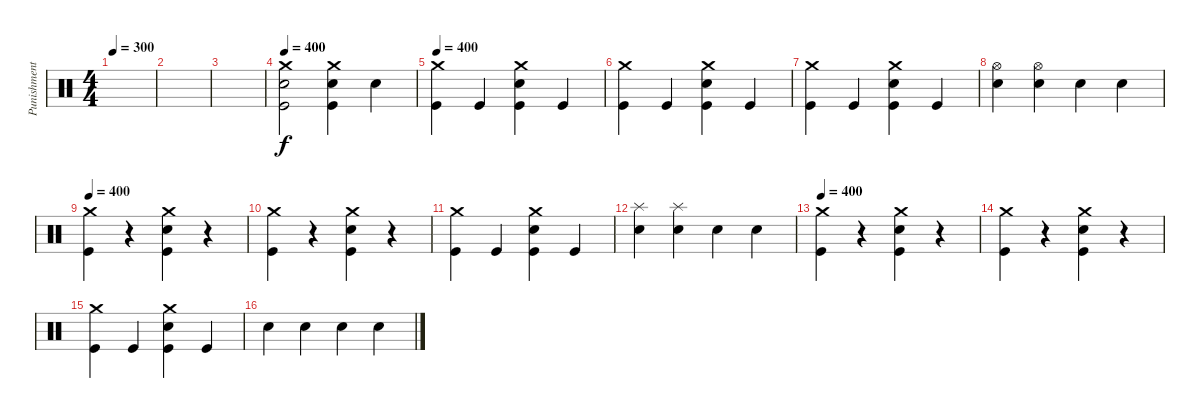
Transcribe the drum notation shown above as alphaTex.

\track ("Punishment" "Punishment") {instrument percussion}
\staff {score}
\articulation defaults
\ts (4 4)
\tempo 300
\clef neutral
\ks c
|
|
|
\tempo 400
("Kick (hit)" "Electric Snare (hit)" "Crash medium (hit)").2 ("Kick (hit)" "Electric Snare (hit)" "Crash medium (hit)").4 "Snare (hit)"{x}.4 |
\tempo 400
("Crash medium (hit)" "Kick (hit)").4 "Kick (hit)".4 ("Crash medium (hit)" "Electric Snare (hit)" "Kick (hit)").4 "Kick (hit)".4 |
("Crash medium (hit)" "Kick (hit)").4 "Kick (hit)".4 ("Crash medium (hit)" "Electric Snare (hit)" "Kick (hit)").4 "Kick (hit)".4 |
("Crash medium (hit)" "Kick (hit)").4 "Kick (hit)".4 ("Crash medium (hit)" "Electric Snare (hit)" "Kick (hit)").4 "Kick (hit)".4 |
("Hi-Hat (open)" "Electric Snare (hit)").4 ("Hi-Hat (open)" "Electric Snare (hit)").4 "Snare (hit)"{x}.4 "Snare (hit)"{x}.4 |
\tempo 400
("Crash medium (hit)" "Kick (hit)").4 r.4 ("Crash medium (hit)" "Electric Snare (hit)" "Kick (hit)").4 r.4 |
("Crash medium (hit)" "Kick (hit)").4 r.4 ("Crash medium (hit)" "Electric Snare (hit)" "Kick (hit)").4 r.4 |
("Crash medium (hit)" "Kick (hit)").4 "Kick (hit)".4 ("Crash medium (hit)" "Electric Snare (hit)" "Kick (hit)").4 "Kick (hit)".4 |
("Splash (hit)" "Electric Snare (hit)").4 ("Splash (hit)" "Electric Snare (hit)").4 "Snare (hit)"{x}.4 "Snare (hit)"{x}.4 |
\tempo 400
("Crash medium (hit)" "Kick (hit)").4 r.4 ("Crash medium (hit)" "Electric Snare (hit)" "Kick (hit)").4 r.4 |
("Crash medium (hit)" "Kick (hit)").4 r.4 ("Crash medium (hit)" "Electric Snare (hit)" "Kick (hit)").4 r.4 |
("Crash medium (hit)" "Kick (hit)").4 "Kick (hit)".4 ("Crash medium (hit)" "Electric Snare (hit)" "Kick (hit)").4 "Kick (hit)".4 |
"Electric Snare (hit)".4 "Electric Snare (hit)".4 "Snare (hit)"{x}.4 "Snare (hit)"{x}.4
